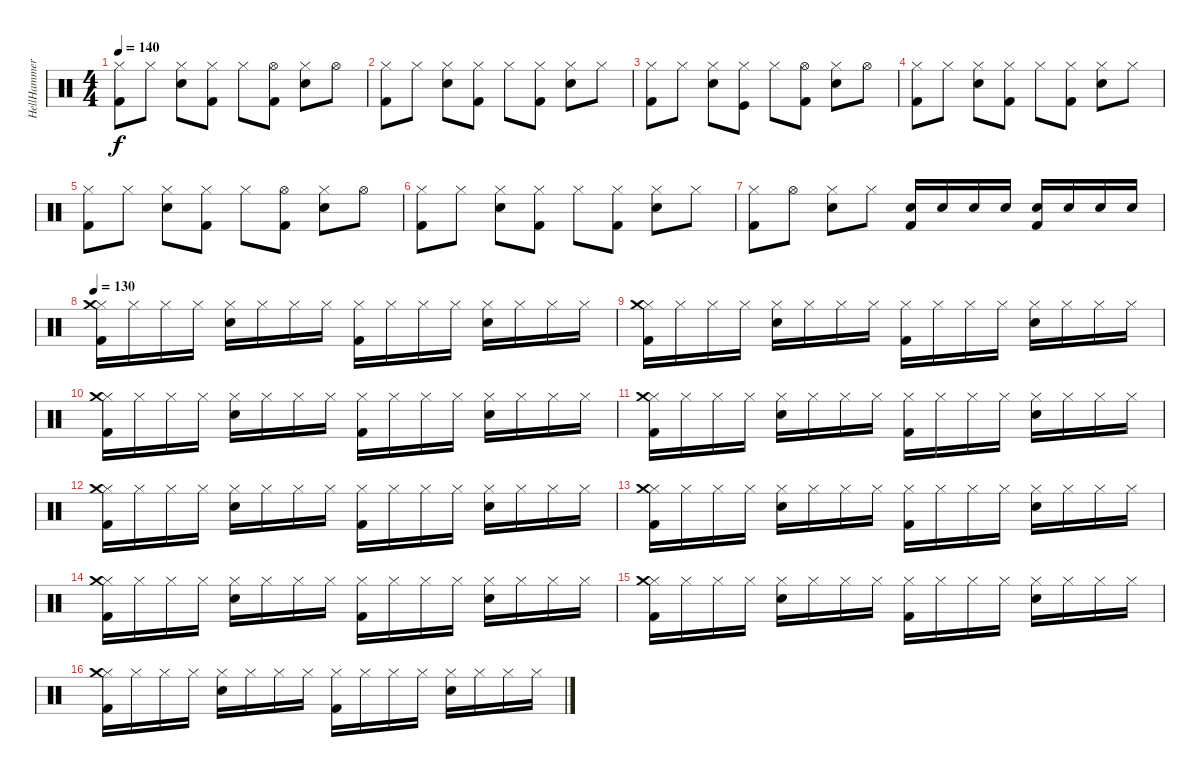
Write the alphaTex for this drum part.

\track ("HellHammer - Drums" "HellHammer") {instrument percussion}
\staff {score}
\articulation defaults
\ts (4 4)
\tempo 140
\clef neutral
\ks c
("Hi-Hat (closed)" "Kick (hit) 2").8{dy f} "Hi-Hat (closed)".8 ("Hi-Hat (closed)" "Snare (hit) 2").8 ("Hi-Hat (closed)" "Kick (hit) 2").8 "Hi-Hat (closed)".8 ("Hi-Hat (open)" "Kick (hit) 2").8 ("Hi-Hat (closed)" "Snare (hit) 2").8 "Hi-Hat (open)".8 |
("Hi-Hat (closed)" "Kick (hit) 2").8 "Hi-Hat (closed)".8 ("Hi-Hat (closed)" "Snare (hit) 2").8 ("Hi-Hat (closed)" "Kick (hit) 2").8 "Hi-Hat (closed)".8 ("Hi-Hat (closed)" "Kick (hit) 2").8 ("Hi-Hat (closed)" "Snare (hit) 2").8 "Hi-Hat (closed)".8 |
("Hi-Hat (closed)" "Kick (hit) 2").8 "Hi-Hat (closed)".8 ("Hi-Hat (closed)" "Snare (hit) 2").8 ("Hi-Hat (closed)" "Kick (hit)").8 "Hi-Hat (closed)".8 ("Hi-Hat (open)" "Kick (hit) 2").8 ("Hi-Hat (closed)" "Snare (hit) 2").8 "Hi-Hat (open)".8 |
("Hi-Hat (closed)" "Kick (hit) 2").8 "Hi-Hat (closed)".8 ("Hi-Hat (closed)" "Snare (hit) 2").8 ("Hi-Hat (closed)" "Kick (hit) 2").8 "Hi-Hat (closed)".8 ("Hi-Hat (closed)" "Kick (hit) 2").8 ("Hi-Hat (closed)" "Snare (hit) 2").8 "Hi-Hat (closed)".8 |
("Hi-Hat (closed)" "Kick (hit) 2").8 "Hi-Hat (closed)".8 ("Hi-Hat (closed)" "Snare (hit) 2").8 ("Hi-Hat (closed)" "Kick (hit) 2").8 "Hi-Hat (closed)".8 ("Hi-Hat (open)" "Kick (hit) 2").8 ("Hi-Hat (closed)" "Snare (hit) 2").8 "Hi-Hat (open)".8 |
("Hi-Hat (closed)" "Kick (hit) 2").8 "Hi-Hat (closed)".8 ("Hi-Hat (closed)" "Snare (hit) 2").8 ("Hi-Hat (closed)" "Kick (hit) 2").8 "Hi-Hat (closed)".8 ("Hi-Hat (closed)" "Kick (hit) 2").8 ("Hi-Hat (closed)" "Snare (hit) 2").8 "Hi-Hat (closed)".8 |
("Hi-Hat (closed)" "Kick (hit) 2").8 "Hi-Hat (open)".8 ("Hi-Hat (closed)" "Snare (hit) 2").8 "Hi-Hat (closed)".8 ("Snare (hit) 2" "Kick (hit) 2").16 "Snare (hit) 2".16 "Snare (hit) 2".16 "Snare (hit) 2".16 ("Snare (hit) 2" "Kick (hit) 2").16 "Snare (hit) 2".16 "Snare (hit) 2".16 "Snare (hit) 2".16 |
\tempo 130
("Kick (hit) 2" "Hi-Hat (closed)" "Crash medium (hit)").16 "Hi-Hat (closed)".16 "Hi-Hat (closed)".16 "Hi-Hat (closed)".16 ("Hi-Hat (closed)" "Snare (hit) 2").16 "Hi-Hat (closed)".16 "Hi-Hat (closed)".16 "Hi-Hat (closed)".16 ("Hi-Hat (closed)" "Kick (hit) 2").16 "Hi-Hat (closed)".16 "Hi-Hat (closed)".16 "Hi-Hat (closed)".16 ("Hi-Hat (closed)" "Snare (hit) 2").16 "Hi-Hat (closed)".16 "Hi-Hat (closed)".16 "Hi-Hat (closed)".16 |
("Kick (hit) 2" "Hi-Hat (closed)" "Crash medium (hit)").16 "Hi-Hat (closed)".16 "Hi-Hat (closed)".16 "Hi-Hat (closed)".16 ("Hi-Hat (closed)" "Snare (hit) 2").16 "Hi-Hat (closed)".16 "Hi-Hat (closed)".16 "Hi-Hat (closed)".16 ("Hi-Hat (closed)" "Kick (hit) 2").16 "Hi-Hat (closed)".16 "Hi-Hat (closed)".16 "Hi-Hat (closed)".16 ("Hi-Hat (closed)" "Snare (hit) 2").16 "Hi-Hat (closed)".16 "Hi-Hat (closed)".16 "Hi-Hat (closed)".16 |
("Kick (hit) 2" "Hi-Hat (closed)" "Crash medium (hit)").16 "Hi-Hat (closed)".16 "Hi-Hat (closed)".16 "Hi-Hat (closed)".16 ("Hi-Hat (closed)" "Snare (hit) 2").16 "Hi-Hat (closed)".16 "Hi-Hat (closed)".16 "Hi-Hat (closed)".16 ("Hi-Hat (closed)" "Kick (hit) 2").16 "Hi-Hat (closed)".16 "Hi-Hat (closed)".16 "Hi-Hat (closed)".16 ("Hi-Hat (closed)" "Snare (hit) 2").16 "Hi-Hat (closed)".16 "Hi-Hat (closed)".16 "Hi-Hat (closed)".16 |
("Kick (hit) 2" "Hi-Hat (closed)" "Crash medium (hit)").16 "Hi-Hat (closed)".16 "Hi-Hat (closed)".16 "Hi-Hat (closed)".16 ("Hi-Hat (closed)" "Snare (hit) 2").16 "Hi-Hat (closed)".16 "Hi-Hat (closed)".16 "Hi-Hat (closed)".16 ("Hi-Hat (closed)" "Kick (hit) 2").16 "Hi-Hat (closed)".16 "Hi-Hat (closed)".16 "Hi-Hat (closed)".16 ("Hi-Hat (closed)" "Snare (hit) 2").16 "Hi-Hat (closed)".16 "Hi-Hat (closed)".16 "Hi-Hat (closed)".16 |
("Kick (hit) 2" "Hi-Hat (closed)" "Crash medium (hit)").16 "Hi-Hat (closed)".16 "Hi-Hat (closed)".16 "Hi-Hat (closed)".16 ("Hi-Hat (closed)" "Snare (hit) 2").16 "Hi-Hat (closed)".16 "Hi-Hat (closed)".16 "Hi-Hat (closed)".16 ("Hi-Hat (closed)" "Kick (hit) 2").16 "Hi-Hat (closed)".16 "Hi-Hat (closed)".16 "Hi-Hat (closed)".16 ("Hi-Hat (closed)" "Snare (hit) 2").16 "Hi-Hat (closed)".16 "Hi-Hat (closed)".16 "Hi-Hat (closed)".16 |
("Kick (hit) 2" "Hi-Hat (closed)" "Crash medium (hit)").16 "Hi-Hat (closed)".16 "Hi-Hat (closed)".16 "Hi-Hat (closed)".16 ("Hi-Hat (closed)" "Snare (hit) 2").16 "Hi-Hat (closed)".16 "Hi-Hat (closed)".16 "Hi-Hat (closed)".16 ("Hi-Hat (closed)" "Kick (hit) 2").16 "Hi-Hat (closed)".16 "Hi-Hat (closed)".16 "Hi-Hat (closed)".16 ("Hi-Hat (closed)" "Snare (hit) 2").16 "Hi-Hat (closed)".16 "Hi-Hat (closed)".16 "Hi-Hat (closed)".16 |
("Kick (hit) 2" "Hi-Hat (closed)" "Crash medium (hit)").16 "Hi-Hat (closed)".16 "Hi-Hat (closed)".16 "Hi-Hat (closed)".16 ("Hi-Hat (closed)" "Snare (hit) 2").16 "Hi-Hat (closed)".16 "Hi-Hat (closed)".16 "Hi-Hat (closed)".16 ("Hi-Hat (closed)" "Kick (hit) 2").16 "Hi-Hat (closed)".16 "Hi-Hat (closed)".16 "Hi-Hat (closed)".16 ("Hi-Hat (closed)" "Snare (hit) 2").16 "Hi-Hat (closed)".16 "Hi-Hat (closed)".16 "Hi-Hat (closed)".16 |
("Kick (hit) 2" "Hi-Hat (closed)" "Crash medium (hit)").16 "Hi-Hat (closed)".16 "Hi-Hat (closed)".16 "Hi-Hat (closed)".16 ("Hi-Hat (closed)" "Snare (hit) 2").16 "Hi-Hat (closed)".16 "Hi-Hat (closed)".16 "Hi-Hat (closed)".16 ("Hi-Hat (closed)" "Kick (hit) 2").16 "Hi-Hat (closed)".16 "Hi-Hat (closed)".16 "Hi-Hat (closed)".16 ("Hi-Hat (closed)" "Snare (hit) 2").16 "Hi-Hat (closed)".16 "Hi-Hat (closed)".16 "Hi-Hat (closed)".16 |
("Kick (hit) 2" "Hi-Hat (closed)" "Crash medium (hit)").16 "Hi-Hat (closed)".16 "Hi-Hat (closed)".16 "Hi-Hat (closed)".16 ("Hi-Hat (closed)" "Snare (hit) 2").16 "Hi-Hat (closed)".16 "Hi-Hat (closed)".16 "Hi-Hat (closed)".16 ("Hi-Hat (closed)" "Kick (hit) 2").16 "Hi-Hat (closed)".16 "Hi-Hat (closed)".16 "Hi-Hat (closed)".16 ("Hi-Hat (closed)" "Snare (hit) 2").16 "Hi-Hat (closed)".16 "Hi-Hat (closed)".16 "Hi-Hat (closed)".16
